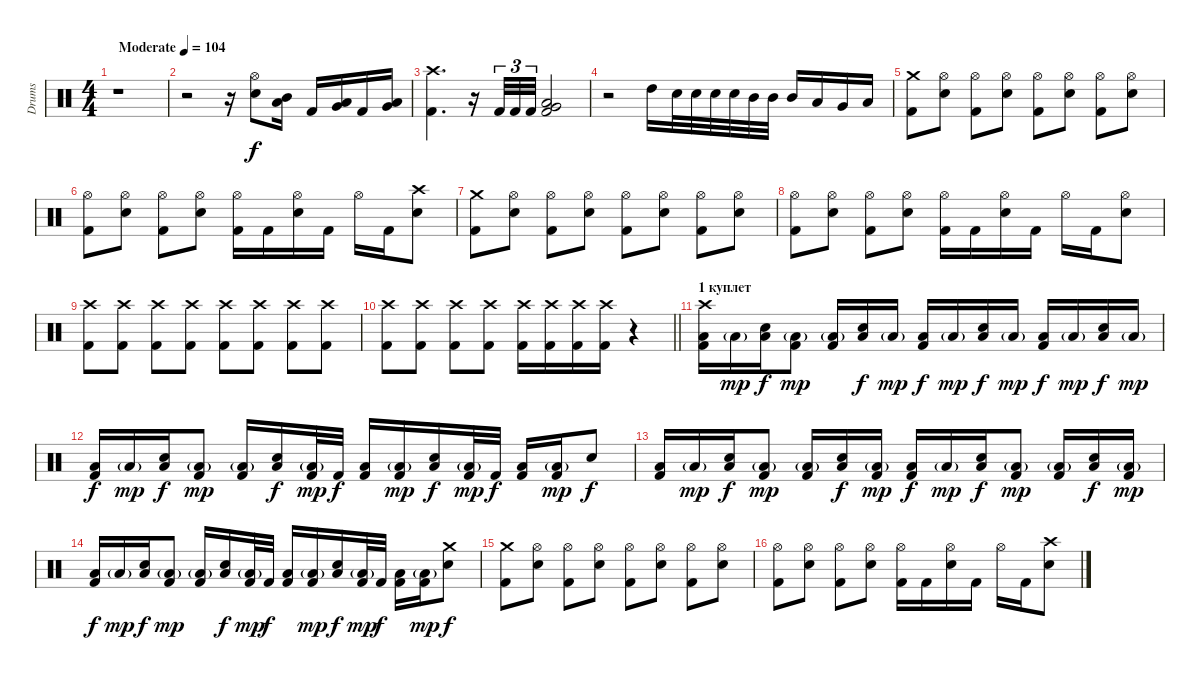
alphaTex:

\track ("Drums" "Drums") {instrument percussion}
\staff {score}
\articulation defaults
\ts (4 4)
\tempo (104 "Moderate")
\clef neutral
\ks c
r.1{dy f} |
r.2 r.16 ("Hi-Hat (open)" "Electric Snare (hit)").8 ("Mid Tom (hit)" "Low Tom (hit)").16 "Kick (hit) 2".16 ("Very Low Tom (hit)" "Low Tom (hit)").16 "Kick (hit) 2".16 ("Very Low Tom (hit)" "Low Floor Tom (hit)").16 |
("Crash high (hit)" "Kick (hit) 2").4{d} r.16 "Kick (hit) 2".32{tu (3 2)} "Kick (hit) 2".32{tu (3 2)} "Kick (hit) 2".32{tu (3 2)} ("Very Low Tom (hit)" "Low Floor Tom (hit)" "Kick (hit) 2").2 |
r.2 "High Tom (hit)".16 "Electric Snare (hit)".32 "Electric Snare (hit)".32 "Electric Snare (hit)".32 "Electric Snare (hit)".32 "Mid Tom (hit)".32 "Mid Tom (hit)".32 "Mid Tom (hit)".16 "Low Tom (hit)".16 "Very Low Tom (hit)".16 "Low Floor Tom (hit)".16 |
("Crash medium (hit)" "Kick (hit) 2").8 ("Hi-Hat (open)" "Electric Snare (hit)").8 ("Hi-Hat (open)" "Kick (hit) 2").8 ("Hi-Hat (open)" "Electric Snare (hit)").8 ("Hi-Hat (open)" "Kick (hit) 2").8 ("Hi-Hat (open)" "Electric Snare (hit)").8 ("Hi-Hat (open)" "Kick (hit) 2").8 ("Hi-Hat (open)" "Electric Snare (hit)").8 |
("Hi-Hat (open)" "Kick (hit) 2").8 ("Hi-Hat (open)" "Electric Snare (hit)").8 ("Hi-Hat (open)" "Kick (hit) 2").8 ("Hi-Hat (open)" "Electric Snare (hit)").8 ("Hi-Hat (open)" "Kick (hit) 2").16 "Kick (hit) 2".16 ("Hi-Hat (open)" "Electric Snare (hit)").16 "Kick (hit) 2".16 "Hi-Hat (open)".16 "Kick (hit) 2".16 ("Crash high (hit)" "Electric Snare (hit)").8 |
("Crash medium (hit)" "Kick (hit) 2").8 ("Hi-Hat (open)" "Electric Snare (hit)").8 ("Hi-Hat (open)" "Kick (hit) 2").8 ("Hi-Hat (open)" "Electric Snare (hit)").8 ("Hi-Hat (open)" "Kick (hit) 2").8 ("Hi-Hat (open)" "Electric Snare (hit)").8 ("Hi-Hat (open)" "Kick (hit) 2").8 ("Hi-Hat (open)" "Electric Snare (hit)").8 |
("Hi-Hat (open)" "Kick (hit) 2").8 ("Hi-Hat (open)" "Electric Snare (hit)").8 ("Hi-Hat (open)" "Kick (hit) 2").8 ("Hi-Hat (open)" "Electric Snare (hit)").8 ("Hi-Hat (open)" "Kick (hit) 2").16 "Kick (hit) 2".16 ("Hi-Hat (open)" "Electric Snare (hit)").16 "Kick (hit) 2".16 "Hi-Hat (open)".16 "Kick (hit) 2".16 ("Hi-Hat (open)" "Electric Snare (hit)").8 |
("Crash high (hit)" "Kick (hit) 2").8 ("Crash high (hit)" "Kick (hit) 2").8 ("Crash high (hit)" "Kick (hit) 2").8 ("Crash high (hit)" "Kick (hit) 2").8 ("Crash high (hit)" "Kick (hit) 2").8 ("Crash high (hit)" "Kick (hit) 2").8 ("Crash high (hit)" "Kick (hit) 2").8 ("Crash high (hit)" "Kick (hit) 2").8 |
\barLineRight lightlight
("Crash high (hit)" "Kick (hit) 2").8 ("Crash high (hit)" "Kick (hit) 2").8 ("Crash high (hit)" "Kick (hit) 2").8 ("Crash high (hit)" "Kick (hit) 2").8 ("Crash high (hit)" "Kick (hit) 2").16 ("Crash high (hit)" "Kick (hit) 2").16 ("Crash high (hit)" "Kick (hit) 2").16 ("Crash high (hit)" "Kick (hit) 2").16 r.4 |
\section ("" "1 куплет")
("Low Floor Tom (hit)" "Crash high (hit)" "Kick (hit) 2").16 "Low Floor Tom (hit)"{g}.16{dy mp} ("Low Floor Tom (hit)" "Electric Snare (hit)").16{dy f} ("Low Floor Tom (hit)"{g} "Kick (hit) 2").8{dy mp} ("Low Floor Tom (hit)"{g} "Kick (hit) 2").16 ("Low Floor Tom (hit)" "Electric Snare (hit)").16{dy f} "Low Floor Tom (hit)"{g}.16{dy mp} ("Low Floor Tom (hit)" "Kick (hit) 2").16{dy f} "Low Floor Tom (hit)"{g}.16{dy mp} ("Low Floor Tom (hit)" "Electric Snare (hit)").16{dy f} "Low Floor Tom (hit)"{g}.16{dy mp} ("Low Floor Tom (hit)" "Kick (hit) 2").16{dy f} "Low Floor Tom (hit)"{g}.16{dy mp} ("Low Floor Tom (hit)" "Electric Snare (hit)").16{dy f} "Low Floor Tom (hit)"{g}.16{dy mp} |
("Low Floor Tom (hit)" "Kick (hit) 2").16{dy f} "Low Floor Tom (hit)"{g}.16{dy mp} ("Low Floor Tom (hit)" "Electric Snare (hit)").16{dy f} ("Low Floor Tom (hit)"{g} "Kick (hit) 2").8{dy mp} ("Low Floor Tom (hit)"{g} "Kick (hit) 2").16 ("Low Floor Tom (hit)" "Electric Snare (hit)").16{dy f} ("Low Floor Tom (hit)"{g} "Kick (hit) 2").32{dy mp} "Kick (hit) 2".32{dy f} ("Low Floor Tom (hit)" "Kick (hit) 2").16 ("Low Floor Tom (hit)"{g} "Kick (hit) 2").16{dy mp} ("Low Floor Tom (hit)" "Electric Snare (hit)").16{dy f} ("Low Floor Tom (hit)"{g} "Kick (hit) 2").32{dy mp} "Kick (hit) 2".32{dy f} ("Low Floor Tom (hit)" "Kick (hit) 2").16 ("Low Floor Tom (hit)"{g} "Kick (hit) 2").16{dy mp} "Electric Snare (hit)".8{dy f} |
("Low Floor Tom (hit)" "Kick (hit) 2").16 "Low Floor Tom (hit)"{g}.16{dy mp} ("Low Floor Tom (hit)" "Electric Snare (hit)").16{dy f} ("Low Floor Tom (hit)"{g} "Kick (hit) 2").8{dy mp} ("Low Floor Tom (hit)"{g} "Kick (hit) 2").16 ("Low Floor Tom (hit)" "Electric Snare (hit)").16{dy f} ("Low Floor Tom (hit)"{g} "Kick (hit) 2").16{dy mp} ("Low Floor Tom (hit)" "Kick (hit) 2").16{dy f} "Low Floor Tom (hit)"{g}.16{dy mp} ("Low Floor Tom (hit)" "Electric Snare (hit)").16{dy f} ("Low Floor Tom (hit)"{g} "Kick (hit) 2").8{dy mp} ("Low Floor Tom (hit)"{g} "Kick (hit) 2").16 ("Low Floor Tom (hit)" "Electric Snare (hit)").16{dy f} ("Low Floor Tom (hit)"{g} "Kick (hit) 2").16{dy mp} |
("Low Floor Tom (hit)" "Kick (hit) 2").16{dy f} "Low Floor Tom (hit)"{g}.16{dy mp} ("Low Floor Tom (hit)" "Electric Snare (hit)").16{dy f} ("Low Floor Tom (hit)"{g} "Kick (hit) 2").8{dy mp} ("Low Floor Tom (hit)"{g} "Kick (hit) 2").16 ("Low Floor Tom (hit)" "Electric Snare (hit)").16{dy f} ("Low Floor Tom (hit)"{g} "Kick (hit) 2").32{dy mp} "Kick (hit) 2".32{dy f} ("Low Floor Tom (hit)" "Kick (hit) 2").16 ("Low Floor Tom (hit)"{g} "Kick (hit) 2").16{dy mp} ("Low Floor Tom (hit)" "Electric Snare (hit)").16{dy f} ("Low Floor Tom (hit)"{g} "Kick (hit) 2").32{dy mp} "Kick (hit) 2".32{dy f} ("Low Floor Tom (hit)" "Kick (hit) 2").16 ("Low Floor Tom (hit)"{g} "Kick (hit) 2").16{dy mp} ("Crash medium (hit)" "Electric Snare (hit)").8{dy f} |
("Crash medium (hit)" "Kick (hit) 2").8 ("Hi-Hat (open)" "Electric Snare (hit)").8 ("Hi-Hat (open)" "Kick (hit) 2").8 ("Hi-Hat (open)" "Electric Snare (hit)").8 ("Hi-Hat (open)" "Kick (hit) 2").8 ("Hi-Hat (open)" "Electric Snare (hit)").8 ("Hi-Hat (open)" "Kick (hit) 2").8 ("Hi-Hat (open)" "Electric Snare (hit)").8 |
("Hi-Hat (open)" "Kick (hit) 2").8 ("Hi-Hat (open)" "Electric Snare (hit)").8 ("Hi-Hat (open)" "Kick (hit) 2").8 ("Hi-Hat (open)" "Electric Snare (hit)").8 ("Hi-Hat (open)" "Kick (hit) 2").16 "Kick (hit) 2".16 ("Hi-Hat (open)" "Electric Snare (hit)").16 "Kick (hit) 2".16 "Hi-Hat (open)".16 "Kick (hit) 2".16 ("Crash high (hit)" "Electric Snare (hit)").8
